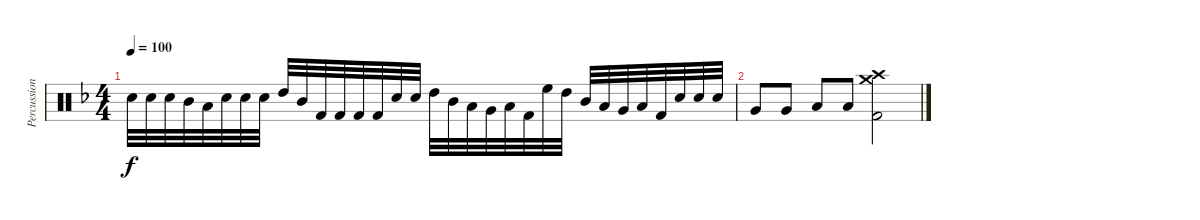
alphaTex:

\track ("Percussion" "Percussion") {instrument percussion}
\staff {score}
\articulation defaults
\ts (4 4)
\tempo 100
\clef neutral
\ks f "Snare (hit) 2".32{dy f} "Snare (hit) 2".32 "Snare (hit) 2".32 "Mid Tom (hit)".32 "Low Floor Tom (hit)".32 "Snare (hit) 2".32 "Snare (hit) 2".32 "Snare (hit) 2".32 "High Tom (hit)".32 "Mid Tom (hit)".32 "Kick (hit) 2".32 "Kick (hit) 2".32 "Kick (hit) 2".32 "Kick (hit) 2".32 "Snare (hit) 2".32 "Snare (hit) 2".32 "High Tom (hit)".32 "Mid Tom (hit)".32 "Low Tom (hit)".32 "Very Low Tom (hit)".32 "Low Floor Tom (hit)".32 "Kick (hit) 2".32 "High Floor Tom (hit)".32 "High Tom (hit)".32 "Mid Tom (hit)".32 "Low Tom (hit)".32 "Very Low Tom (hit)".32 "Low Floor Tom (hit)".32 "Kick (hit) 2".32 "Snare (hit) 2".32 "Snare (hit) 2".32 "Snare (hit) 2".32
|
"Very Low Tom (hit)".8 "Very Low Tom (hit)".8 "Low Floor Tom (hit)".8 "Low Floor Tom (hit)".8 ("Kick (hit) 2" "Crash high (hit)" "Crash medium (hit)").2
